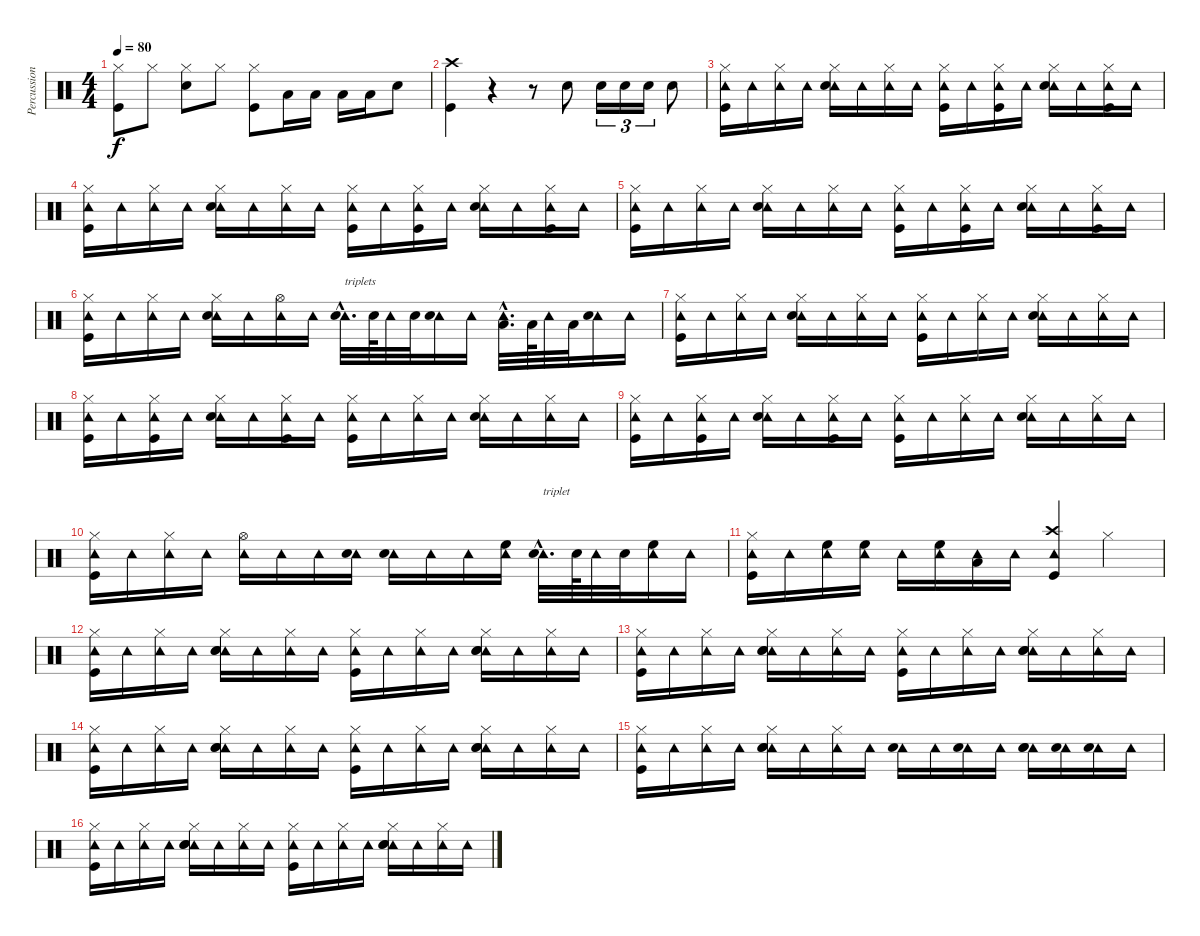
\track ("Percussion" "Percussion") {instrument percussion}
\staff {score}
\articulation defaults
\ts (4 4)
\tempo 80
\clef neutral
\ks c
("Hi-Hat (closed)" "Kick (hit)").8{dy f} "Hi-Hat (closed)".8 ("Hi-Hat (closed)" "Snare (hit) 2").8 "Hi-Hat (closed)".8 ("Hi-Hat (closed)" "Kick (hit)").8 "Low Tom (hit)".16 "Low Tom (hit)".16 "Low Tom (hit)".16 "Low Tom (hit)".16 "Snare (hit) 2".8 |
("Crash high (hit)" "Kick (hit)").4 r.4 r.8 "Snare (hit) 2".8 "Snare (hit) 2".16{tu (3 2)} "Snare (hit) 2".16{tu (3 2)} "Snare (hit) 2".16{tu (3 2)} "Snare (hit) 2".8 |
("Hi-Hat (closed)" "Tambourine (hit)" "Kick (hit)").16 "Tambourine (hit)".16 ("Hi-Hat (closed)" "Tambourine (hit)").16 "Tambourine (hit)".16 ("Hi-Hat (closed)" "Tambourine (hit)" "Snare (hit) 2").16 "Tambourine (hit)".16 ("Hi-Hat (closed)" "Tambourine (hit)").16 "Tambourine (hit)".16 ("Hi-Hat (closed)" "Tambourine (hit)" "Kick (hit)").16 "Tambourine (hit)".16 ("Hi-Hat (closed)" "Tambourine (hit)" "Kick (hit)").16 "Tambourine (hit)".16 ("Hi-Hat (closed)" "Tambourine (hit)" "Snare (hit) 2").16 "Tambourine (hit)".16 ("Hi-Hat (closed)" "Tambourine (hit)" "Kick (hit)").16 "Tambourine (hit)".16 |
("Hi-Hat (closed)" "Tambourine (hit)" "Kick (hit)").16 "Tambourine (hit)".16 ("Hi-Hat (closed)" "Tambourine (hit)").16 "Tambourine (hit)".16 ("Hi-Hat (closed)" "Tambourine (hit)" "Snare (hit) 2").16 "Tambourine (hit)".16 ("Hi-Hat (closed)" "Tambourine (hit)").16 "Tambourine (hit)".16 ("Hi-Hat (closed)" "Tambourine (hit)" "Kick (hit)").16 "Tambourine (hit)".16 ("Hi-Hat (closed)" "Tambourine (hit)" "Kick (hit)").16 "Tambourine (hit)".16 ("Hi-Hat (closed)" "Tambourine (hit)" "Snare (hit) 2").16 "Tambourine (hit)".16 ("Hi-Hat (closed)" "Tambourine (hit)" "Kick (hit)").16 "Tambourine (hit)".16 |
("Hi-Hat (closed)" "Tambourine (hit)" "Kick (hit)").16 "Tambourine (hit)".16 ("Hi-Hat (closed)" "Tambourine (hit)").16 "Tambourine (hit)".16 ("Hi-Hat (closed)" "Tambourine (hit)" "Snare (hit) 2").16 "Tambourine (hit)".16 ("Hi-Hat (closed)" "Tambourine (hit)").16 "Tambourine (hit)".16 ("Hi-Hat (closed)" "Tambourine (hit)" "Kick (hit)").16 "Tambourine (hit)".16 ("Hi-Hat (closed)" "Tambourine (hit)" "Kick (hit)").16 "Tambourine (hit)".16 ("Hi-Hat (closed)" "Tambourine (hit)" "Snare (hit) 2").16 "Tambourine (hit)".16 ("Hi-Hat (closed)" "Tambourine (hit)" "Kick (hit)").16 "Tambourine (hit)".16 |
("Hi-Hat (closed)" "Tambourine (hit)" "Kick (hit)").16 "Tambourine (hit)".16 ("Hi-Hat (closed)" "Tambourine (hit)").16 "Tambourine (hit)".16 ("Hi-Hat (closed)" "Tambourine (hit)" "Snare (hit) 2").16 "Tambourine (hit)".16 ("Hi-Hat (open)" "Tambourine (hit)").16 "Tambourine (hit)".16 ("Tambourine (hit)"{hac} "Snare (hit) 2"{hac}).32{d txt "triplets"} "Snare (hit) 2".64 "Tambourine (hit)".32 "Snare (hit) 2".32 ("Tambourine (hit)" "Snare (hit) 2").16 "Tambourine (hit)".16 ("Tambourine (hit)"{hac} "Low Tom (hit)"{hac}).32{d} "Low Tom (hit)".64 "Tambourine (hit)".32 "Low Tom (hit)".32 ("Tambourine (hit)" "Snare (hit) 2").16 "Tambourine (hit)".16 |
("Hi-Hat (closed)" "Tambourine (hit)" "Kick (hit)").16 "Tambourine (hit)".16 ("Hi-Hat (closed)" "Tambourine (hit)").16 "Tambourine (hit)".16 ("Hi-Hat (closed)" "Tambourine (hit)" "Snare (hit) 2").16 "Tambourine (hit)".16 ("Hi-Hat (closed)" "Tambourine (hit)").16 "Tambourine (hit)".16 ("Hi-Hat (closed)" "Tambourine (hit)" "Kick (hit)").16 "Tambourine (hit)".16 ("Hi-Hat (closed)" "Tambourine (hit)").16 "Tambourine (hit)".16 ("Hi-Hat (closed)" "Tambourine (hit)" "Snare (hit) 2").16 "Tambourine (hit)".16 ("Hi-Hat (closed)" "Tambourine (hit)").16 "Tambourine (hit)".16 |
("Hi-Hat (closed)" "Tambourine (hit)" "Kick (hit)").16 "Tambourine (hit)".16 ("Hi-Hat (closed)" "Tambourine (hit)" "Kick (hit)").16 "Tambourine (hit)".16 ("Hi-Hat (closed)" "Tambourine (hit)" "Snare (hit) 2").16 "Tambourine (hit)".16 ("Hi-Hat (closed)" "Tambourine (hit)" "Kick (hit)").16 "Tambourine (hit)".16 ("Hi-Hat (closed)" "Tambourine (hit)" "Kick (hit)").16 "Tambourine (hit)".16 ("Hi-Hat (closed)" "Tambourine (hit)").16 "Tambourine (hit)".16 ("Hi-Hat (closed)" "Tambourine (hit)" "Snare (hit) 2").16 "Tambourine (hit)".16 ("Hi-Hat (closed)" "Tambourine (hit)").16 "Tambourine (hit)".16 |
("Hi-Hat (closed)" "Tambourine (hit)" "Kick (hit)").16 "Tambourine (hit)".16 ("Hi-Hat (closed)" "Tambourine (hit)" "Kick (hit)").16 "Tambourine (hit)".16 ("Hi-Hat (closed)" "Tambourine (hit)" "Snare (hit) 2").16 "Tambourine (hit)".16 ("Hi-Hat (closed)" "Tambourine (hit)" "Kick (hit)").16 "Tambourine (hit)".16 ("Hi-Hat (closed)" "Tambourine (hit)" "Kick (hit)").16 "Tambourine (hit)".16 ("Hi-Hat (closed)" "Tambourine (hit)").16 "Tambourine (hit)".16 ("Hi-Hat (closed)" "Tambourine (hit)" "Snare (hit) 2").16 "Tambourine (hit)".16 ("Hi-Hat (closed)" "Tambourine (hit)").16 "Tambourine (hit)".16 |
("Hi-Hat (closed)" "Tambourine (hit)" "Kick (hit)").16 "Tambourine (hit)".16 ("Hi-Hat (closed)" "Tambourine (hit)").16 "Tambourine (hit)".16 ("Hi-Hat (open)" "Tambourine (hit)").16 "Tambourine (hit)".16 "Tambourine (hit)".16 ("Tambourine (hit)" "Snare (hit) 2").16 ("Tambourine (hit)" "Snare (hit) 2").16 "Tambourine (hit)".16 "Tambourine (hit)".16 ("Tambourine (hit)" "High Floor Tom (hit)").16 ("Tambourine (hit)"{hac} "Snare (hit) 2"{hac}).32{d txt "triplet"} "Snare (hit) 2".64 "Tambourine (hit)".32 "Snare (hit) 2".32 ("Tambourine (hit)" "High Floor Tom (hit)").16 "Tambourine (hit)".16 |
("Hi-Hat (closed)" "Tambourine (hit)" "Kick (hit)").16 "Tambourine (hit)".16 ("Tambourine (hit)" "High Floor Tom (hit)").16 ("Tambourine (hit)" "High Floor Tom (hit)").16 "Tambourine (hit)".16 ("Tambourine (hit)" "High Floor Tom (hit)").16 ("Tambourine (hit)" "Low Tom (hit)").16 "Tambourine (hit)".16 ("Crash high (hit)" "Tambourine (hit)" "Kick (hit)").4 "Hi-Hat (closed)".4 |
("Hi-Hat (closed)" "Tambourine (hit)" "Kick (hit)").16 "Tambourine (hit)".16 ("Hi-Hat (closed)" "Tambourine (hit)").16 "Tambourine (hit)".16 ("Hi-Hat (closed)" "Tambourine (hit)" "Snare (hit) 2" "Hand Clap (hit)").16 "Tambourine (hit)".16 ("Hi-Hat (closed)" "Tambourine (hit)").16 "Tambourine (hit)".16 ("Hi-Hat (closed)" "Tambourine (hit)" "Kick (hit)").16 "Tambourine (hit)".16 ("Hi-Hat (closed)" "Tambourine (hit)").16 "Tambourine (hit)".16 ("Hi-Hat (closed)" "Tambourine (hit)" "Snare (hit) 2" "Hand Clap (hit)").16 "Tambourine (hit)".16 ("Hi-Hat (closed)" "Tambourine (hit)").16 "Tambourine (hit)".16 |
("Hi-Hat (closed)" "Tambourine (hit)" "Kick (hit)").16 "Tambourine (hit)".16 ("Hi-Hat (closed)" "Tambourine (hit)").16 "Tambourine (hit)".16 ("Hi-Hat (closed)" "Tambourine (hit)" "Snare (hit) 2" "Hand Clap (hit)").16 "Tambourine (hit)".16 ("Hi-Hat (closed)" "Tambourine (hit)").16 "Tambourine (hit)".16 ("Hi-Hat (closed)" "Tambourine (hit)" "Kick (hit)").16 "Tambourine (hit)".16 ("Hi-Hat (closed)" "Tambourine (hit)").16 "Tambourine (hit)".16 ("Hi-Hat (closed)" "Tambourine (hit)" "Snare (hit) 2" "Hand Clap (hit)").16 "Tambourine (hit)".16 ("Hi-Hat (closed)" "Tambourine (hit)").16 "Tambourine (hit)".16 |
("Hi-Hat (closed)" "Tambourine (hit)" "Kick (hit)").16 "Tambourine (hit)".16 ("Hi-Hat (closed)" "Tambourine (hit)").16 "Tambourine (hit)".16 ("Hi-Hat (closed)" "Tambourine (hit)" "Snare (hit) 2" "Hand Clap (hit)").16 "Tambourine (hit)".16 ("Hi-Hat (closed)" "Tambourine (hit)").16 "Tambourine (hit)".16 ("Hi-Hat (closed)" "Tambourine (hit)" "Kick (hit)").16 "Tambourine (hit)".16 ("Hi-Hat (closed)" "Tambourine (hit)").16 "Tambourine (hit)".16 ("Hi-Hat (closed)" "Tambourine (hit)" "Snare (hit) 2" "Hand Clap (hit)").16 "Tambourine (hit)".16 ("Hi-Hat (closed)" "Tambourine (hit)").16 "Tambourine (hit)".16 |
("Hi-Hat (closed)" "Tambourine (hit)" "Kick (hit)").16 "Tambourine (hit)".16 ("Hi-Hat (closed)" "Tambourine (hit)").16 "Tambourine (hit)".16 ("Hi-Hat (closed)" "Tambourine (hit)" "Snare (hit) 2" "Hand Clap (hit)").16 "Tambourine (hit)".16 ("Hi-Hat (closed)" "Tambourine (hit)").16 "Tambourine (hit)".16 ("Tambourine (hit)" "Snare (hit) 2").16 "Tambourine (hit)".16 ("Tambourine (hit)" "Snare (hit) 2").16 "Tambourine (hit)".16 ("Tambourine (hit)" "Snare (hit) 2" "Hand Clap (hit)").16 ("Tambourine (hit)" "Snare (hit) 2").16 ("Tambourine (hit)" "Snare (hit) 2").16 "Tambourine (hit)".16 |
("Hi-Hat (closed)" "Tambourine (hit)" "Kick (hit)").16 "Tambourine (hit)".16 ("Hi-Hat (closed)" "Tambourine (hit)").16 "Tambourine (hit)".16 ("Hi-Hat (closed)" "Tambourine (hit)" "Snare (hit) 2" "Hand Clap (hit)").16 "Tambourine (hit)".16 ("Hi-Hat (closed)" "Tambourine (hit)").16 "Tambourine (hit)".16 ("Hi-Hat (closed)" "Tambourine (hit)" "Kick (hit)").16 "Tambourine (hit)".16 ("Hi-Hat (closed)" "Tambourine (hit)").16 "Tambourine (hit)".16 ("Hi-Hat (closed)" "Tambourine (hit)" "Snare (hit) 2" "Hand Clap (hit)").16 "Tambourine (hit)".16 ("Hi-Hat (closed)" "Tambourine (hit)").16 "Tambourine (hit)".16
